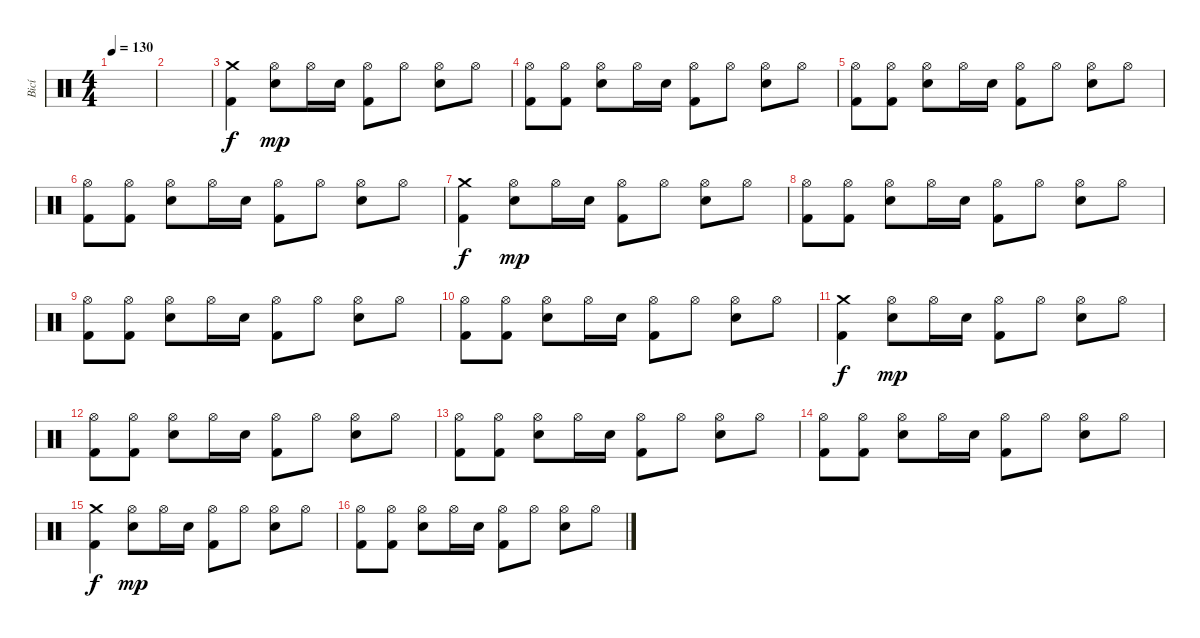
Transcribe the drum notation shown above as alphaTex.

\track ("Bicí" "Bicí") {instrument percussion}
\staff {score}
\articulation defaults
\ts (4 4)
\tempo 130
\clef neutral
\ks c
|
|
("Crash medium (hit)" "Kick (hit) 2").4 ("Hi-Hat (open)" "Electric Snare (hit)").8{dy mp} "Hi-Hat (open)".16 "Electric Snare (hit)".16 ("Hi-Hat (open)" "Kick (hit) 2").8 "Hi-Hat (open)".8 ("Hi-Hat (open)" "Electric Snare (hit)").8 "Hi-Hat (open)".8 |
("Hi-Hat (open)" "Kick (hit) 2").8 ("Hi-Hat (open)" "Kick (hit) 2").8 ("Hi-Hat (open)" "Electric Snare (hit)").8 "Hi-Hat (open)".16 "Electric Snare (hit)".16 ("Hi-Hat (open)" "Kick (hit) 2").8 "Hi-Hat (open)".8 ("Hi-Hat (open)" "Electric Snare (hit)").8 "Hi-Hat (open)".8 |
("Hi-Hat (open)" "Kick (hit) 2").8 ("Hi-Hat (open)" "Kick (hit) 2").8 ("Hi-Hat (open)" "Electric Snare (hit)").8 "Hi-Hat (open)".16 "Electric Snare (hit)".16 ("Hi-Hat (open)" "Kick (hit) 2").8 "Hi-Hat (open)".8 ("Hi-Hat (open)" "Electric Snare (hit)").8 "Hi-Hat (open)".8 |
("Hi-Hat (open)" "Kick (hit) 2").8 ("Hi-Hat (open)" "Kick (hit) 2").8 ("Hi-Hat (open)" "Electric Snare (hit)").8 "Hi-Hat (open)".16 "Electric Snare (hit)".16 ("Hi-Hat (open)" "Kick (hit) 2").8 "Hi-Hat (open)".8 ("Hi-Hat (open)" "Electric Snare (hit)").8 "Hi-Hat (open)".8 |
("Crash medium (hit)" "Kick (hit) 2").4{dy f} ("Hi-Hat (open)" "Electric Snare (hit)").8{dy mp} "Hi-Hat (open)".16 "Electric Snare (hit)".16 ("Hi-Hat (open)" "Kick (hit) 2").8 "Hi-Hat (open)".8 ("Hi-Hat (open)" "Electric Snare (hit)").8 "Hi-Hat (open)".8 |
("Hi-Hat (open)" "Kick (hit) 2").8 ("Hi-Hat (open)" "Kick (hit) 2").8 ("Hi-Hat (open)" "Electric Snare (hit)").8 "Hi-Hat (open)".16 "Electric Snare (hit)".16 ("Hi-Hat (open)" "Kick (hit) 2").8 "Hi-Hat (open)".8 ("Hi-Hat (open)" "Electric Snare (hit)").8 "Hi-Hat (open)".8 |
("Hi-Hat (open)" "Kick (hit) 2").8 ("Hi-Hat (open)" "Kick (hit) 2").8 ("Hi-Hat (open)" "Electric Snare (hit)").8 "Hi-Hat (open)".16 "Electric Snare (hit)".16 ("Hi-Hat (open)" "Kick (hit) 2").8 "Hi-Hat (open)".8 ("Hi-Hat (open)" "Electric Snare (hit)").8 "Hi-Hat (open)".8 |
("Hi-Hat (open)" "Kick (hit) 2").8 ("Hi-Hat (open)" "Kick (hit) 2").8 ("Hi-Hat (open)" "Electric Snare (hit)").8 "Hi-Hat (open)".16 "Electric Snare (hit)".16 ("Hi-Hat (open)" "Kick (hit) 2").8 "Hi-Hat (open)".8 ("Hi-Hat (open)" "Electric Snare (hit)").8 "Hi-Hat (open)".8 |
("Crash medium (hit)" "Kick (hit) 2").4{dy f} ("Hi-Hat (open)" "Electric Snare (hit)").8{dy mp} "Hi-Hat (open)".16 "Electric Snare (hit)".16 ("Hi-Hat (open)" "Kick (hit) 2").8 "Hi-Hat (open)".8 ("Hi-Hat (open)" "Electric Snare (hit)").8 "Hi-Hat (open)".8 |
("Hi-Hat (open)" "Kick (hit) 2").8 ("Hi-Hat (open)" "Kick (hit) 2").8 ("Hi-Hat (open)" "Electric Snare (hit)").8 "Hi-Hat (open)".16 "Electric Snare (hit)".16 ("Hi-Hat (open)" "Kick (hit) 2").8 "Hi-Hat (open)".8 ("Hi-Hat (open)" "Electric Snare (hit)").8 "Hi-Hat (open)".8 |
("Hi-Hat (open)" "Kick (hit) 2").8 ("Hi-Hat (open)" "Kick (hit) 2").8 ("Hi-Hat (open)" "Electric Snare (hit)").8 "Hi-Hat (open)".16 "Electric Snare (hit)".16 ("Hi-Hat (open)" "Kick (hit) 2").8 "Hi-Hat (open)".8 ("Hi-Hat (open)" "Electric Snare (hit)").8 "Hi-Hat (open)".8 |
("Hi-Hat (open)" "Kick (hit) 2").8 ("Hi-Hat (open)" "Kick (hit) 2").8 ("Hi-Hat (open)" "Electric Snare (hit)").8 "Hi-Hat (open)".16 "Electric Snare (hit)".16 ("Hi-Hat (open)" "Kick (hit) 2").8 "Hi-Hat (open)".8 ("Hi-Hat (open)" "Electric Snare (hit)").8 "Hi-Hat (open)".8 |
("Crash medium (hit)" "Kick (hit) 2").4{dy f} ("Hi-Hat (open)" "Electric Snare (hit)").8{dy mp} "Hi-Hat (open)".16 "Electric Snare (hit)".16 ("Hi-Hat (open)" "Kick (hit) 2").8 "Hi-Hat (open)".8 ("Hi-Hat (open)" "Electric Snare (hit)").8 "Hi-Hat (open)".8 |
("Hi-Hat (open)" "Kick (hit) 2").8 ("Hi-Hat (open)" "Kick (hit) 2").8 ("Hi-Hat (open)" "Electric Snare (hit)").8 "Hi-Hat (open)".16 "Electric Snare (hit)".16 ("Hi-Hat (open)" "Kick (hit) 2").8 "Hi-Hat (open)".8 ("Hi-Hat (open)" "Electric Snare (hit)").8 "Hi-Hat (open)".8
